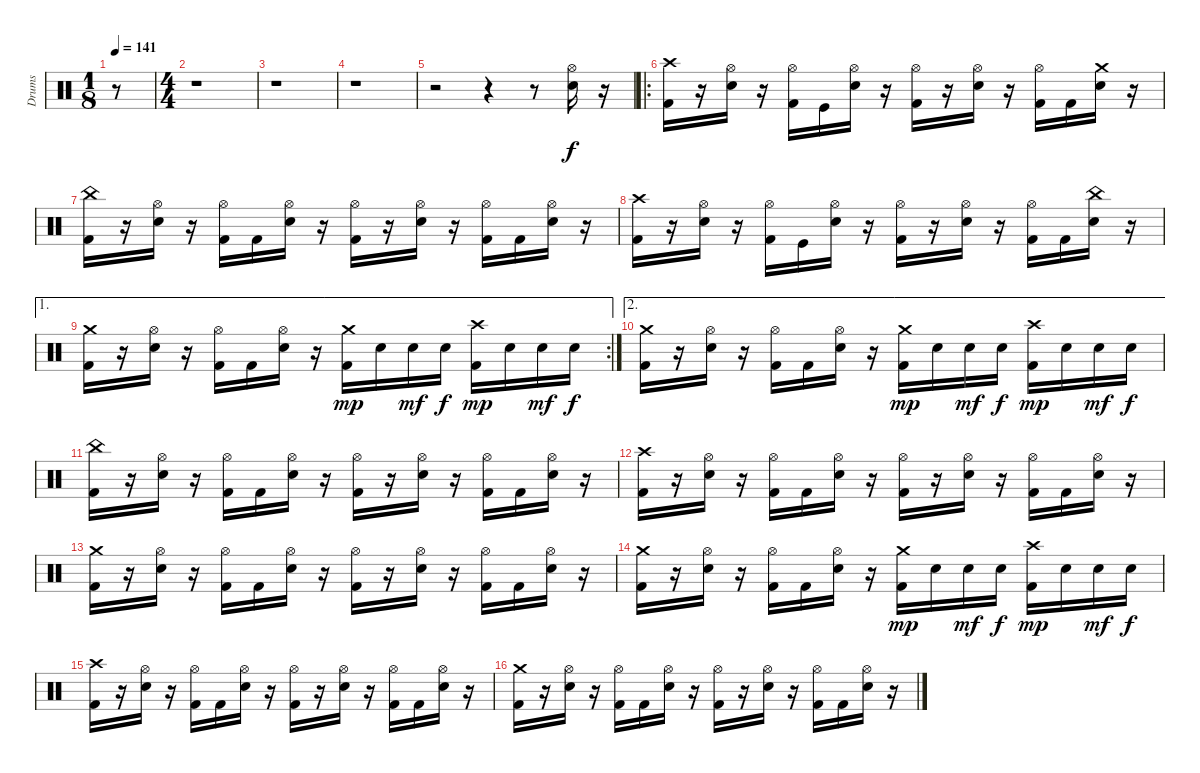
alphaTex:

\track ("Drums" "Drums") {instrument percussion}
\staff {score}
\articulation defaults
\ts (1 8)
\tempo 141
\clef neutral
\ks c
r.8{dy f} |
\ts (4 4)
r.1 |
r.1 |
r.1 |
r.2 r.4 r.8 ("Hi-Hat (open)" "Electric Snare (hit)").16 r.16 |
\ro
("Crash high (hit)" "Kick (hit) 2").16 r.16 ("Hi-Hat (open)" "Electric Snare (hit)").16 r.16 ("Hi-Hat (open)" "Kick (hit) 2").16 "Kick (hit)".16 ("Hi-Hat (open)" "Electric Snare (hit)").16 r.16 ("Hi-Hat (open)" "Kick (hit) 2").16 r.16 ("Hi-Hat (open)" "Electric Snare (hit)").16 r.16 ("Hi-Hat (open)" "Kick (hit) 2").16 "Kick (hit) 2".16 ("Crash medium (hit)" "Electric Snare (hit)").16 r.16 |
("China (hit)" "Kick (hit) 2").16 r.16 ("Hi-Hat (open)" "Electric Snare (hit)").16 r.16 ("Hi-Hat (open)" "Kick (hit) 2").16 "Kick (hit) 2".16 ("Hi-Hat (open)" "Electric Snare (hit)").16 r.16 ("Hi-Hat (open)" "Kick (hit) 2").16 r.16 ("Hi-Hat (open)" "Electric Snare (hit)").16 r.16 ("Hi-Hat (open)" "Kick (hit) 2").16 "Kick (hit) 2".16 ("Hi-Hat (open)" "Electric Snare (hit)").16 r.16 |
("Crash high (hit)" "Kick (hit) 2").16 r.16 ("Hi-Hat (open)" "Electric Snare (hit)").16 r.16 ("Hi-Hat (open)" "Kick (hit) 2").16 "Kick (hit)".16 ("Hi-Hat (open)" "Electric Snare (hit)").16 r.16 ("Hi-Hat (open)" "Kick (hit) 2").16 r.16 ("Hi-Hat (open)" "Electric Snare (hit)").16 r.16 ("Hi-Hat (open)" "Kick (hit) 2").16 "Kick (hit) 2".16 ("China (hit)" "Electric Snare (hit)").16 r.16 |
\ae 1
\rc 2
("Crash medium (hit)" "Kick (hit) 2").16 r.16 ("Hi-Hat (open)" "Electric Snare (hit)").16 r.16 ("Hi-Hat (open)" "Kick (hit) 2").16 "Kick (hit) 2".16 ("Hi-Hat (open)" "Electric Snare (hit)").16 r.16 ("Crash medium (hit)" "Kick (hit) 2").16{dy mp} "Electric Snare (hit)".16 "Electric Snare (hit)".16{dy mf} "Electric Snare (hit)".16{dy f} ("Crash high (hit)" "Kick (hit) 2").16{dy mp} "Electric Snare (hit)".16 "Electric Snare (hit)".16{dy mf} "Electric Snare (hit)".16{dy f} |
\ae 2
("Crash medium (hit)" "Kick (hit) 2").16 r.16 ("Hi-Hat (open)" "Electric Snare (hit)").16 r.16 ("Hi-Hat (open)" "Kick (hit) 2").16 "Kick (hit) 2".16 ("Hi-Hat (open)" "Electric Snare (hit)").16 r.16 ("Crash medium (hit)" "Kick (hit) 2").16{dy mp} "Electric Snare (hit)".16 "Electric Snare (hit)".16{dy mf} "Electric Snare (hit)".16{dy f} ("Crash high (hit)" "Kick (hit) 2").16{dy mp} "Electric Snare (hit)".16 "Electric Snare (hit)".16{dy mf} "Electric Snare (hit)".16{dy f} |
("China (hit)" "Kick (hit) 2").16 r.16 ("Hi-Hat (open)" "Electric Snare (hit)").16 r.16 ("Hi-Hat (open)" "Kick (hit) 2").16 "Kick (hit) 2".16 ("Hi-Hat (open)" "Electric Snare (hit)").16 r.16 ("Hi-Hat (open)" "Kick (hit) 2").16 r.16 ("Hi-Hat (open)" "Electric Snare (hit)").16 r.16 ("Hi-Hat (open)" "Kick (hit) 2").16 "Kick (hit) 2".16 ("Hi-Hat (open)" "Electric Snare (hit)").16 r.16 |
("Crash high (hit)" "Kick (hit) 2").16 r.16 ("Hi-Hat (open)" "Electric Snare (hit)").16 r.16 ("Hi-Hat (open)" "Kick (hit) 2").16 "Kick (hit) 2".16 ("Hi-Hat (open)" "Electric Snare (hit)").16 r.16 ("Hi-Hat (open)" "Kick (hit) 2").16 r.16 ("Hi-Hat (open)" "Electric Snare (hit)").16 r.16 ("Hi-Hat (open)" "Kick (hit) 2").16 "Kick (hit) 2".16 ("Hi-Hat (open)" "Electric Snare (hit)").16 r.16 |
("Crash medium (hit)" "Kick (hit) 2").16 r.16 ("Hi-Hat (open)" "Electric Snare (hit)").16 r.16 ("Hi-Hat (open)" "Kick (hit) 2").16 "Kick (hit) 2".16 ("Hi-Hat (open)" "Electric Snare (hit)").16 r.16 ("Hi-Hat (open)" "Kick (hit) 2").16 r.16 ("Hi-Hat (open)" "Electric Snare (hit)").16 r.16 ("Hi-Hat (open)" "Kick (hit) 2").16 "Kick (hit) 2".16 ("Hi-Hat (open)" "Electric Snare (hit)").16 r.16 |
("Crash medium (hit)" "Kick (hit) 2").16 r.16 ("Hi-Hat (open)" "Electric Snare (hit)").16 r.16 ("Hi-Hat (open)" "Kick (hit) 2").16 "Kick (hit) 2".16 ("Hi-Hat (open)" "Electric Snare (hit)").16 r.16 ("Crash medium (hit)" "Kick (hit) 2").16{dy mp} "Electric Snare (hit)".16 "Electric Snare (hit)".16{dy mf} "Electric Snare (hit)".16{dy f} ("Crash high (hit)" "Kick (hit) 2").16{dy mp} "Electric Snare (hit)".16 "Electric Snare (hit)".16{dy mf} "Electric Snare (hit)".16{dy f} |
("Crash high (hit)" "Kick (hit) 2").16 r.16 ("Hi-Hat (open)" "Electric Snare (hit)").16 r.16 ("Hi-Hat (open)" "Kick (hit) 2").16 "Kick (hit) 2".16 ("Hi-Hat (open)" "Electric Snare (hit)").16 r.16 ("Hi-Hat (open)" "Kick (hit) 2").16 r.16 ("Hi-Hat (open)" "Electric Snare (hit)").16 r.16 ("Hi-Hat (open)" "Kick (hit) 2").16 "Kick (hit) 2".16 ("Hi-Hat (open)" "Electric Snare (hit)").16 r.16 |
("Crash medium (hit)" "Kick (hit) 2").16 r.16 ("Hi-Hat (open)" "Electric Snare (hit)").16 r.16 ("Hi-Hat (open)" "Kick (hit) 2").16 "Kick (hit) 2".16 ("Hi-Hat (open)" "Electric Snare (hit)").16 r.16 ("Hi-Hat (open)" "Kick (hit) 2").16 r.16 ("Hi-Hat (open)" "Electric Snare (hit)").16 r.16 ("Hi-Hat (open)" "Kick (hit) 2").16 "Kick (hit) 2".16 ("Hi-Hat (open)" "Electric Snare (hit)").16 r.16
